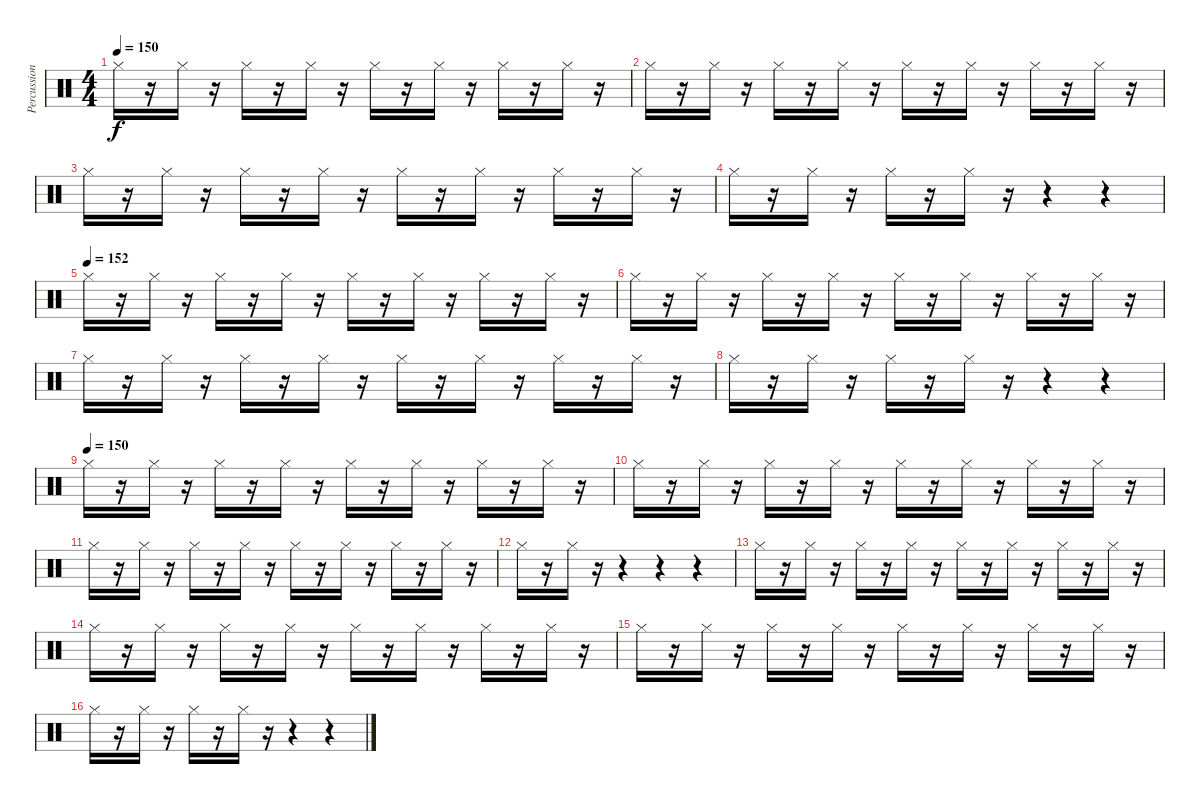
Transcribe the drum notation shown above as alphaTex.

\track ("Percussion" "Percussion") {instrument percussion}
\staff {score}
\articulation defaults
\ts (4 4)
\tempo 150
\clef neutral
\ks c "Hi-Hat (closed)".16{dy f}
r.16 "Hi-Hat (closed)".16 r.16 "Hi-Hat (closed)".16 r.16 "Hi-Hat (closed)".16 r.16 "Hi-Hat (closed)".16 r.16 "Hi-Hat (closed)".16 r.16 "Hi-Hat (closed)".16 r.16 "Hi-Hat (closed)".16 r.16 |
"Hi-Hat (closed)".16 r.16 "Hi-Hat (closed)".16 r.16 "Hi-Hat (closed)".16 r.16 "Hi-Hat (closed)".16 r.16 "Hi-Hat (closed)".16 r.16 "Hi-Hat (closed)".16 r.16 "Hi-Hat (closed)".16 r.16 "Hi-Hat (closed)".16 r.16 |
"Hi-Hat (closed)".16 r.16 "Hi-Hat (closed)".16 r.16 "Hi-Hat (closed)".16 r.16 "Hi-Hat (closed)".16 r.16 "Hi-Hat (closed)".16 r.16 "Hi-Hat (closed)".16 r.16 "Hi-Hat (closed)".16 r.16 "Hi-Hat (closed)".16 r.16 |
"Hi-Hat (closed)".16 r.16 "Hi-Hat (closed)".16 r.16 "Hi-Hat (closed)".16 r.16 "Hi-Hat (closed)".16 r.16 r.4 r.4 |
\tempo (152)
"Hi-Hat (closed)".16 r.16 "Hi-Hat (closed)".16 r.16 "Hi-Hat (closed)".16 r.16 "Hi-Hat (closed)".16 r.16 "Hi-Hat (closed)".16 r.16 "Hi-Hat (closed)".16 r.16 "Hi-Hat (closed)".16 r.16 "Hi-Hat (closed)".16 r.16 |
"Hi-Hat (closed)".16 r.16 "Hi-Hat (closed)".16 r.16 "Hi-Hat (closed)".16 r.16 "Hi-Hat (closed)".16 r.16 "Hi-Hat (closed)".16 r.16 "Hi-Hat (closed)".16 r.16 "Hi-Hat (closed)".16 r.16 "Hi-Hat (closed)".16 r.16 |
"Hi-Hat (closed)".16 r.16 "Hi-Hat (closed)".16 r.16 "Hi-Hat (closed)".16 r.16 "Hi-Hat (closed)".16 r.16 "Hi-Hat (closed)".16 r.16 "Hi-Hat (closed)".16 r.16 "Hi-Hat (closed)".16 r.16 "Hi-Hat (closed)".16 r.16 |
"Hi-Hat (closed)".16 r.16 "Hi-Hat (closed)".16 r.16 "Hi-Hat (closed)".16 r.16 "Hi-Hat (closed)".16 r.16 r.4 r.4 |
\tempo (150)
"Hi-Hat (closed)".16 r.16 "Hi-Hat (closed)".16 r.16 "Hi-Hat (closed)".16 r.16 "Hi-Hat (closed)".16 r.16 "Hi-Hat (closed)".16 r.16 "Hi-Hat (closed)".16 r.16 "Hi-Hat (closed)".16 r.16 "Hi-Hat (closed)".16 r.16 |
"Hi-Hat (closed)".16 r.16 "Hi-Hat (closed)".16 r.16 "Hi-Hat (closed)".16 r.16 "Hi-Hat (closed)".16 r.16 "Hi-Hat (closed)".16 r.16 "Hi-Hat (closed)".16 r.16 "Hi-Hat (closed)".16 r.16 "Hi-Hat (closed)".16 r.16 |
"Hi-Hat (closed)".16 r.16 "Hi-Hat (closed)".16 r.16 "Hi-Hat (closed)".16 r.16 "Hi-Hat (closed)".16 r.16 "Hi-Hat (closed)".16 r.16 "Hi-Hat (closed)".16 r.16 "Hi-Hat (closed)".16 r.16 "Hi-Hat (closed)".16 r.16 |
"Hi-Hat (closed)".16 r.16 "Hi-Hat (closed)".16 r.16 r.4 r.4 r.4 |
"Hi-Hat (closed)".16 r.16 "Hi-Hat (closed)".16 r.16 "Hi-Hat (closed)".16 r.16 "Hi-Hat (closed)".16 r.16 "Hi-Hat (closed)".16 r.16 "Hi-Hat (closed)".16 r.16 "Hi-Hat (closed)".16 r.16 "Hi-Hat (closed)".16 r.16 |
"Hi-Hat (closed)".16 r.16 "Hi-Hat (closed)".16 r.16 "Hi-Hat (closed)".16 r.16 "Hi-Hat (closed)".16 r.16 "Hi-Hat (closed)".16 r.16 "Hi-Hat (closed)".16 r.16 "Hi-Hat (closed)".16 r.16 "Hi-Hat (closed)".16 r.16 |
"Hi-Hat (closed)".16 r.16 "Hi-Hat (closed)".16 r.16 "Hi-Hat (closed)".16 r.16 "Hi-Hat (closed)".16 r.16 "Hi-Hat (closed)".16 r.16 "Hi-Hat (closed)".16 r.16 "Hi-Hat (closed)".16 r.16 "Hi-Hat (closed)".16 r.16 |
"Hi-Hat (closed)".16 r.16 "Hi-Hat (closed)".16 r.16 "Hi-Hat (closed)".16 r.16 "Hi-Hat (closed)".16 r.16 r.4 r.4
